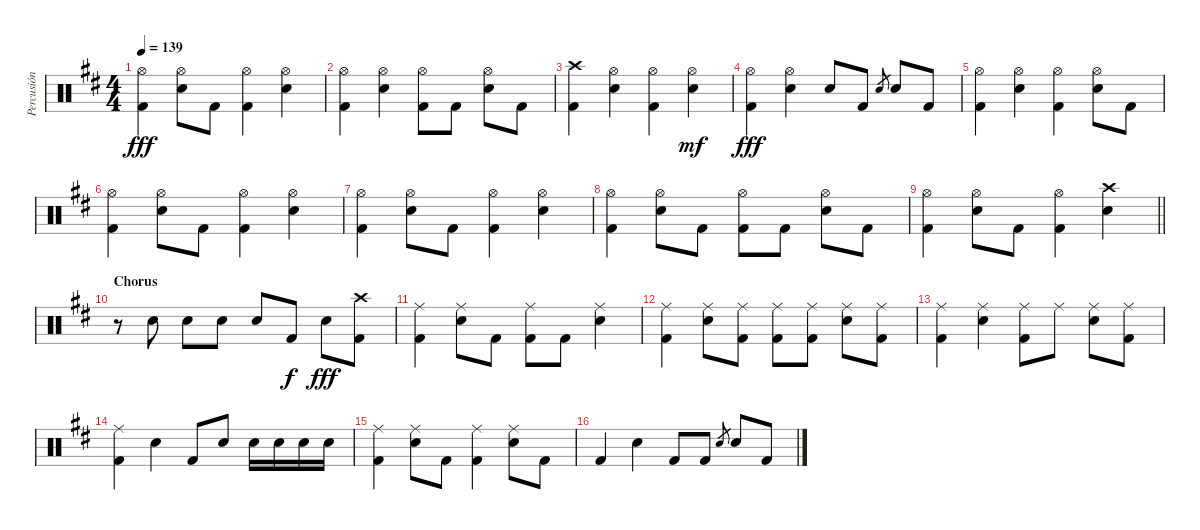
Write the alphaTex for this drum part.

\track ("Percusión" "Percusión") {instrument percussion}
\staff {score}
\articulation defaults
\ts (4 4)
\tempo 139
\clef neutral
\ks d
("Hi-Hat (open)" "Kick (hit) 2").4{dy fff} ("Hi-Hat (open)" "Electric Snare (hit)").8 "Kick (hit) 2".8 ("Hi-Hat (open)" "Kick (hit) 2").4 ("Hi-Hat (open)" "Electric Snare (hit)").4 |
("Hi-Hat (open)" "Kick (hit) 2").4 ("Hi-Hat (open)" "Electric Snare (hit)").4 ("Hi-Hat (open)" "Kick (hit) 2").8 "Kick (hit) 2".8 ("Hi-Hat (open)" "Electric Snare (hit)").8 "Kick (hit) 2".8 |
("Crash high (hit)" "Kick (hit) 2").4 ("Hi-Hat (open)" "Electric Snare (hit)").4 ("Hi-Hat (open)" "Kick (hit) 2").4 ("Hi-Hat (open)" "Electric Snare (hit)").4{dy mf} |
("Hi-Hat (open)" "Kick (hit) 2").4{dy fff} ("Hi-Hat (open)" "Electric Snare (hit)").4 "Electric Snare (hit)".8 "Kick (hit) 2".8 "Electric Snare (hit)".8{gr} "Electric Snare (hit)".8 "Kick (hit) 2".8 |
("Hi-Hat (open)" "Kick (hit) 2").4 ("Hi-Hat (open)" "Electric Snare (hit)").4 ("Hi-Hat (open)" "Kick (hit) 2").4 ("Hi-Hat (open)" "Electric Snare (hit)").8 "Kick (hit) 2".8 |
("Hi-Hat (open)" "Kick (hit) 2").4 ("Hi-Hat (open)" "Electric Snare (hit)").8 "Kick (hit) 2".8 ("Hi-Hat (open)" "Kick (hit) 2").4 ("Hi-Hat (open)" "Electric Snare (hit)").4 |
("Hi-Hat (open)" "Kick (hit) 2").4 ("Hi-Hat (open)" "Electric Snare (hit)").8 "Kick (hit) 2".8 ("Hi-Hat (open)" "Kick (hit) 2").4 ("Hi-Hat (open)" "Electric Snare (hit)").4 |
("Hi-Hat (open)" "Kick (hit) 2").4 ("Hi-Hat (open)" "Electric Snare (hit)").8 "Kick (hit) 2".8 ("Hi-Hat (open)" "Kick (hit) 2").8 "Kick (hit) 2".8 ("Hi-Hat (open)" "Electric Snare (hit)").8 "Kick (hit) 2".8 |
\barLineRight lightlight
("Hi-Hat (open)" "Kick (hit) 2").4 ("Hi-Hat (open)" "Electric Snare (hit)").8 "Kick (hit) 2".8 ("Hi-Hat (open)" "Kick (hit) 2").4 ("Crash high (hit)" "Electric Snare (hit)").4 |
\section ("" "Chorus")
r.8 "Electric Snare (hit)".8 "Electric Snare (hit)".8 "Electric Snare (hit)".8 "Electric Snare (hit)".8 "Kick (hit) 2".8{dy f} "Electric Snare (hit)".8{dy fff} ("Crash high (hit)" "Kick (hit) 2").8 |
("Ride (middle)" "Kick (hit) 2").4 ("Ride (middle)" "Electric Snare (hit)").8 "Kick (hit) 2".8 ("Ride (middle)" "Kick (hit) 2").8 "Kick (hit) 2".8 ("Ride (middle)" "Electric Snare (hit)").4 |
("Ride (middle)" "Kick (hit) 2").4 ("Ride (middle)" "Electric Snare (hit)").8 ("Ride (middle)" "Kick (hit) 2").8 ("Ride (middle)" "Kick (hit) 2").8 ("Ride (middle)" "Kick (hit) 2").8 ("Ride (middle)" "Electric Snare (hit)").8 ("Ride (middle)" "Kick (hit) 2").8 |
("Ride (middle)" "Kick (hit) 2").4 ("Ride (middle)" "Electric Snare (hit)").4 ("Ride (middle)" "Kick (hit) 2").8 "Ride (middle)".8 ("Ride (middle)" "Electric Snare (hit)").8 ("Ride (middle)" "Kick (hit) 2").8 |
("Ride (middle)" "Kick (hit) 2").4 "Electric Snare (hit)".4 "Kick (hit) 2".8 "Electric Snare (hit)".8 "Electric Snare (hit)".16 "Electric Snare (hit)".16 "Electric Snare (hit)".16 "Electric Snare (hit)".16 |
("Ride (middle)" "Kick (hit) 2").4 ("Ride (middle)" "Electric Snare (hit)").8 "Kick (hit) 2".8 ("Ride (middle)" "Kick (hit) 2").4 ("Ride (middle)" "Electric Snare (hit)").8 "Kick (hit) 2".8 |
"Kick (hit) 2".4 "Electric Snare (hit)".4 "Kick (hit) 2".8 "Kick (hit) 2".8 "Electric Snare (hit)".8{gr} "Electric Snare (hit)".8 "Kick (hit) 2".8
